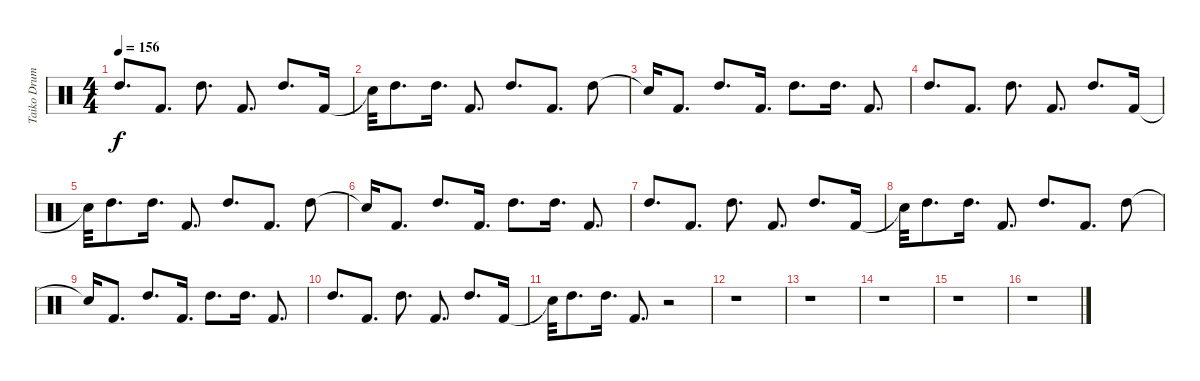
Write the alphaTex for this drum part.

\track ("Taiko Drum" "Taiko Drum") {instrument percussion}
\staff {score}
\articulation defaults
\ts (4 4)
\tempo 156
\clef neutral
\ks c "High Tom (hit)".8{d dy f} "Kick (hit) 2".8{d} "High Tom (hit)".8{d} "Kick (hit) 2".8{d} "High Tom (hit)".8{d} "Kick (hit) 2".16
|
"Snare (hit)"{t}.32 "High Tom (hit)".8{d} "High Tom (hit)".16{d} "Kick (hit) 2".8{d} "High Tom (hit)".8{d} "Kick (hit) 2".8{d} "High Tom (hit)".8 |
"Snare (hit)"{t}.16 "Kick (hit) 2".8{d} "High Tom (hit)".8{d} "Kick (hit) 2".16{d} "High Tom (hit)".8{d} "High Tom (hit)".16{d} "Kick (hit) 2".8{d} |
"High Tom (hit)".8{d} "Kick (hit) 2".8{d} "High Tom (hit)".8{d} "Kick (hit) 2".8{d} "High Tom (hit)".8{d} "Kick (hit) 2".16 |
"Snare (hit)"{t}.32 "High Tom (hit)".8{d} "High Tom (hit)".16{d} "Kick (hit) 2".8{d} "High Tom (hit)".8{d} "Kick (hit) 2".8{d} "High Tom (hit)".8 |
"Snare (hit)"{t}.16 "Kick (hit) 2".8{d} "High Tom (hit)".8{d} "Kick (hit) 2".16{d} "High Tom (hit)".8{d} "High Tom (hit)".16{d} "Kick (hit) 2".8{d} |
"High Tom (hit)".8{d} "Kick (hit) 2".8{d} "High Tom (hit)".8{d} "Kick (hit) 2".8{d} "High Tom (hit)".8{d} "Kick (hit) 2".16 |
"Snare (hit)"{t}.32 "High Tom (hit)".8{d} "High Tom (hit)".16{d} "Kick (hit) 2".8{d} "High Tom (hit)".8{d} "Kick (hit) 2".8{d} "High Tom (hit)".8 |
"Snare (hit)"{t}.16 "Kick (hit) 2".8{d} "High Tom (hit)".8{d} "Kick (hit) 2".16{d} "High Tom (hit)".8{d} "High Tom (hit)".16{d} "Kick (hit) 2".8{d} |
"High Tom (hit)".8{d} "Kick (hit) 2".8{d} "High Tom (hit)".8{d} "Kick (hit) 2".8{d} "High Tom (hit)".8{d} "Kick (hit) 2".16 |
"Snare (hit)"{t}.32 "High Tom (hit)".8{d} "High Tom (hit)".16{d} "Kick (hit) 2".8{d} r.2 |
r.1 |
r.1 |
r.1 |
r.1 |
r.1
